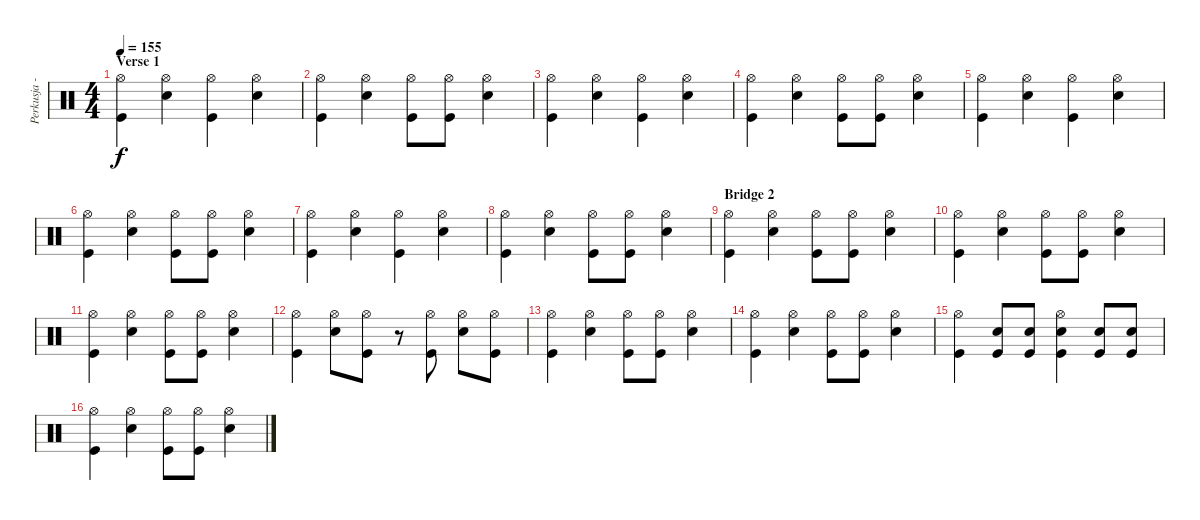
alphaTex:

\track ("Perkusja - Mielony" "Perkusja -") {instrument percussion}
\staff {score}
\articulation defaults
\ts (4 4)
\section ("" "Verse 1")
\tempo 155
\clef neutral
\ks c
("Hi-Hat (open)" "Kick (hit)").4{dy f} ("Snare (hit) 2" "Hi-Hat (open)").4 ("Hi-Hat (open)" "Kick (hit)").4 ("Snare (hit) 2" "Hi-Hat (open)").4 |
("Hi-Hat (open)" "Kick (hit)").4 ("Snare (hit) 2" "Hi-Hat (open)").4 ("Hi-Hat (open)" "Kick (hit)").8 ("Hi-Hat (open)" "Kick (hit)").8 ("Snare (hit) 2" "Hi-Hat (open)").4 |
("Hi-Hat (open)" "Kick (hit)").4 ("Snare (hit) 2" "Hi-Hat (open)").4 ("Hi-Hat (open)" "Kick (hit)").4 ("Snare (hit) 2" "Hi-Hat (open)").4 |
("Hi-Hat (open)" "Kick (hit)").4 ("Snare (hit) 2" "Hi-Hat (open)").4 ("Hi-Hat (open)" "Kick (hit)").8 ("Hi-Hat (open)" "Kick (hit)").8 ("Snare (hit) 2" "Hi-Hat (open)").4 |
("Hi-Hat (open)" "Kick (hit)").4 ("Snare (hit) 2" "Hi-Hat (open)").4 ("Hi-Hat (open)" "Kick (hit)").4 ("Snare (hit) 2" "Hi-Hat (open)").4 |
("Hi-Hat (open)" "Kick (hit)").4 ("Snare (hit) 2" "Hi-Hat (open)").4 ("Hi-Hat (open)" "Kick (hit)").8 ("Hi-Hat (open)" "Kick (hit)").8 ("Snare (hit) 2" "Hi-Hat (open)").4 |
("Hi-Hat (open)" "Kick (hit)").4 ("Snare (hit) 2" "Hi-Hat (open)").4 ("Hi-Hat (open)" "Kick (hit)").4 ("Snare (hit) 2" "Hi-Hat (open)").4 |
("Hi-Hat (open)" "Kick (hit)").4 ("Snare (hit) 2" "Hi-Hat (open)").4 ("Hi-Hat (open)" "Kick (hit)").8 ("Hi-Hat (open)" "Kick (hit)").8 ("Snare (hit) 2" "Hi-Hat (open)").4 |
\section ("" "Bridge 2")
("Hi-Hat (open)" "Kick (hit)").4 ("Snare (hit) 2" "Hi-Hat (open)").4 ("Hi-Hat (open)" "Kick (hit)").8 ("Hi-Hat (open)" "Kick (hit)").8 ("Snare (hit) 2" "Hi-Hat (open)").4 |
("Hi-Hat (open)" "Kick (hit)").4 ("Snare (hit) 2" "Hi-Hat (open)").4 ("Hi-Hat (open)" "Kick (hit)").8 ("Hi-Hat (open)" "Kick (hit)").8 ("Snare (hit) 2" "Hi-Hat (open)").4 |
("Hi-Hat (open)" "Kick (hit)").4 ("Snare (hit) 2" "Hi-Hat (open)").4 ("Hi-Hat (open)" "Kick (hit)").8 ("Hi-Hat (open)" "Kick (hit)").8 ("Snare (hit) 2" "Hi-Hat (open)").4 |
("Hi-Hat (open)" "Kick (hit)").4 ("Snare (hit) 2" "Hi-Hat (open)").8 ("Hi-Hat (open)" "Kick (hit)").8 r.8 ("Hi-Hat (open)" "Kick (hit)").8 ("Snare (hit) 2" "Hi-Hat (open)").8 ("Hi-Hat (open)" "Kick (hit)").8 |
("Hi-Hat (open)" "Kick (hit)").4 ("Snare (hit) 2" "Hi-Hat (open)").4 ("Hi-Hat (open)" "Kick (hit)").8 ("Hi-Hat (open)" "Kick (hit)").8 ("Snare (hit) 2" "Hi-Hat (open)").4 |
("Hi-Hat (open)" "Kick (hit)").4 ("Snare (hit) 2" "Hi-Hat (open)").4 ("Hi-Hat (open)" "Kick (hit)").8 ("Hi-Hat (open)" "Kick (hit)").8 ("Snare (hit) 2" "Hi-Hat (open)").4 |
("Hi-Hat (open)" "Kick (hit)").4 ("Snare (hit) 2" "Kick (hit)").8 ("Snare (hit) 2" "Kick (hit)").8 ("Snare (hit) 2" "Hi-Hat (open)" "Kick (hit)").4 ("Snare (hit) 2" "Kick (hit)").8 ("Snare (hit) 2" "Kick (hit)").8 |
("Hi-Hat (open)" "Kick (hit)").4 ("Snare (hit) 2" "Hi-Hat (open)").4 ("Hi-Hat (open)" "Kick (hit)").8 ("Hi-Hat (open)" "Kick (hit)").8 ("Snare (hit) 2" "Hi-Hat (open)").4
